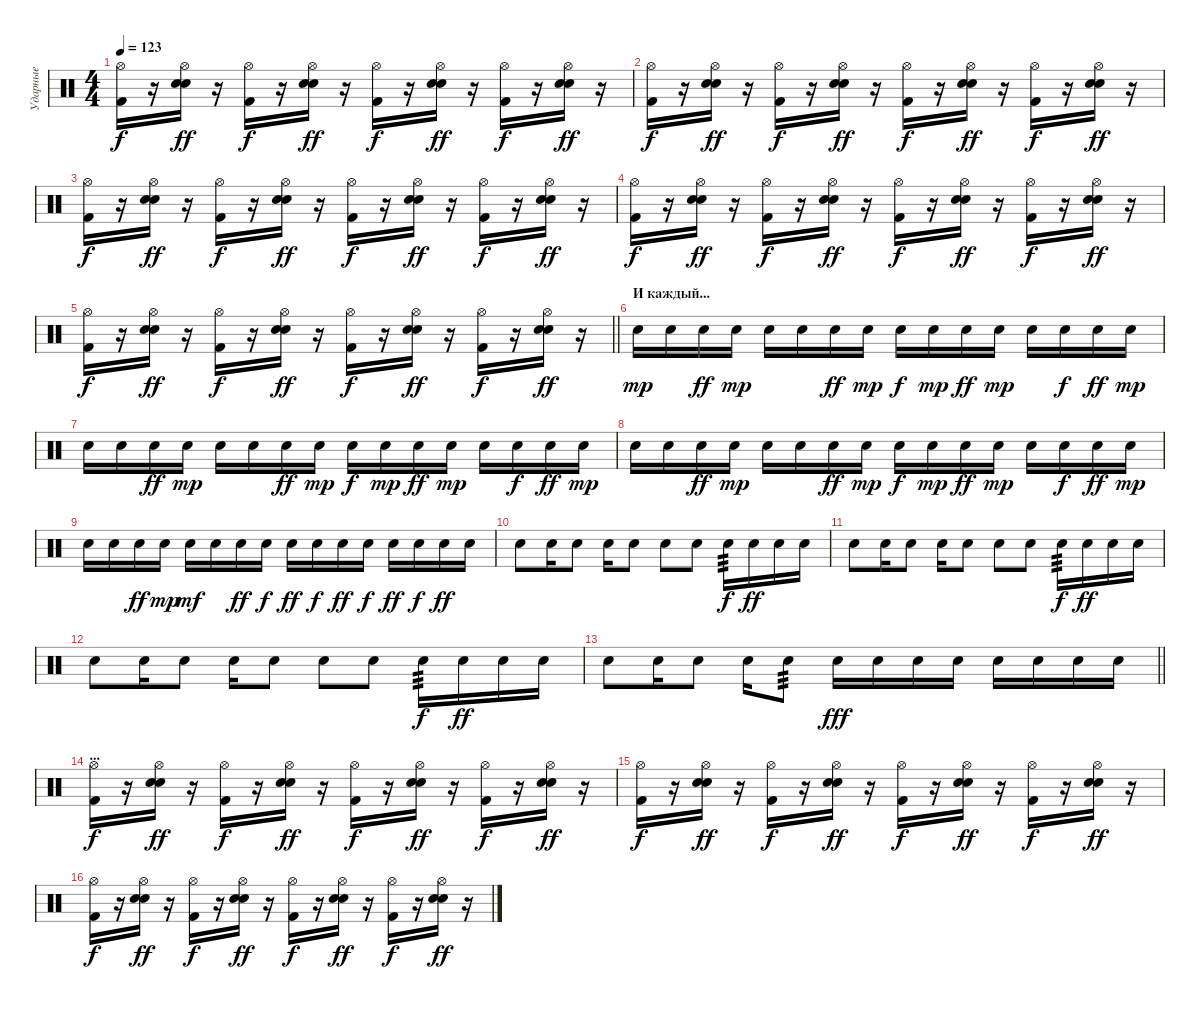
\track ("Ударные" "Ударные") {instrument percussion}
\staff {score}
\articulation defaults
\ts (4 4)
\tempo 123
\clef neutral
\ks c
("Hi-Hat (open)" "Kick (hit) 2").16{dy f} r.16 ("Hi-Hat (open)" "Electric Snare (hit)" "Snare (hit) 2").16{dy ff} r.16 ("Hi-Hat (open)" "Kick (hit) 2").16{dy f} r.16 ("Hi-Hat (open)" "Electric Snare (hit)" "Snare (hit) 2").16{dy ff} r.16 ("Hi-Hat (open)" "Kick (hit) 2").16{dy f} r.16 ("Hi-Hat (open)" "Electric Snare (hit)" "Snare (hit) 2").16{dy ff} r.16 ("Hi-Hat (open)" "Kick (hit) 2").16{dy f} r.16 ("Hi-Hat (open)" "Electric Snare (hit)" "Snare (hit) 2").16{dy ff} r.16 |
("Hi-Hat (open)" "Kick (hit) 2").16{dy f} r.16 ("Hi-Hat (open)" "Electric Snare (hit)" "Snare (hit) 2").16{dy ff} r.16 ("Hi-Hat (open)" "Kick (hit) 2").16{dy f} r.16 ("Hi-Hat (open)" "Electric Snare (hit)" "Snare (hit) 2").16{dy ff} r.16 ("Hi-Hat (open)" "Kick (hit) 2").16{dy f} r.16 ("Hi-Hat (open)" "Electric Snare (hit)" "Snare (hit) 2").16{dy ff} r.16 ("Hi-Hat (open)" "Kick (hit) 2").16{dy f} r.16 ("Hi-Hat (open)" "Electric Snare (hit)" "Snare (hit) 2").16{dy ff} r.16 |
("Hi-Hat (open)" "Kick (hit) 2").16{dy f} r.16 ("Hi-Hat (open)" "Electric Snare (hit)" "Snare (hit) 2").16{dy ff} r.16 ("Hi-Hat (open)" "Kick (hit) 2").16{dy f} r.16 ("Hi-Hat (open)" "Electric Snare (hit)" "Snare (hit) 2").16{dy ff} r.16 ("Hi-Hat (open)" "Kick (hit) 2").16{dy f} r.16 ("Hi-Hat (open)" "Electric Snare (hit)" "Snare (hit) 2").16{dy ff} r.16 ("Hi-Hat (open)" "Kick (hit) 2").16{dy f} r.16 ("Hi-Hat (open)" "Electric Snare (hit)" "Snare (hit) 2").16{dy ff} r.16 |
("Hi-Hat (open)" "Kick (hit) 2").16{dy f} r.16 ("Hi-Hat (open)" "Electric Snare (hit)" "Snare (hit) 2").16{dy ff} r.16 ("Hi-Hat (open)" "Kick (hit) 2").16{dy f} r.16 ("Hi-Hat (open)" "Electric Snare (hit)" "Snare (hit) 2").16{dy ff} r.16 ("Hi-Hat (open)" "Kick (hit) 2").16{dy f} r.16 ("Hi-Hat (open)" "Electric Snare (hit)" "Snare (hit) 2").16{dy ff} r.16 ("Hi-Hat (open)" "Kick (hit) 2").16{dy f} r.16 ("Hi-Hat (open)" "Electric Snare (hit)" "Snare (hit) 2").16{dy ff} r.16 |
\barLineRight lightlight
("Hi-Hat (open)" "Kick (hit) 2").16{dy f} r.16 ("Hi-Hat (open)" "Electric Snare (hit)" "Snare (hit) 2").16{dy ff} r.16 ("Hi-Hat (open)" "Kick (hit) 2").16{dy f} r.16 ("Hi-Hat (open)" "Electric Snare (hit)" "Snare (hit) 2").16{dy ff} r.16 ("Hi-Hat (open)" "Kick (hit) 2").16{dy f} r.16 ("Hi-Hat (open)" "Electric Snare (hit)" "Snare (hit) 2").16{dy ff} r.16 ("Hi-Hat (open)" "Kick (hit) 2").16{dy f} r.16 ("Hi-Hat (open)" "Electric Snare (hit)" "Snare (hit) 2").16{dy ff} r.16 |
\section ("" "И каждый...")
"Snare (hit) 2".16{dy mp} "Snare (hit) 2".16 "Snare (hit) 2".16{dy ff} "Snare (hit) 2".16{dy mp} "Snare (hit) 2".16 "Snare (hit) 2".16 "Snare (hit) 2".16{dy ff} "Snare (hit) 2".16{dy mp} "Snare (hit) 2".16{dy f} "Snare (hit) 2".16{dy mp} "Snare (hit) 2".16{dy ff} "Snare (hit) 2".16{dy mp} "Snare (hit) 2".16 "Snare (hit) 2".16{dy f} "Snare (hit) 2".16{dy ff} "Snare (hit) 2".16{dy mp} |
"Snare (hit) 2".16 "Snare (hit) 2".16 "Snare (hit) 2".16{dy ff} "Snare (hit) 2".16{dy mp} "Snare (hit) 2".16 "Snare (hit) 2".16 "Snare (hit) 2".16{dy ff} "Snare (hit) 2".16{dy mp} "Snare (hit) 2".16{dy f} "Snare (hit) 2".16{dy mp} "Snare (hit) 2".16{dy ff} "Snare (hit) 2".16{dy mp} "Snare (hit) 2".16 "Snare (hit) 2".16{dy f} "Snare (hit) 2".16{dy ff} "Snare (hit) 2".16{dy mp} |
"Snare (hit) 2".16 "Snare (hit) 2".16 "Snare (hit) 2".16{dy ff} "Snare (hit) 2".16{dy mp} "Snare (hit) 2".16 "Snare (hit) 2".16 "Snare (hit) 2".16{dy ff} "Snare (hit) 2".16{dy mp} "Snare (hit) 2".16{dy f} "Snare (hit) 2".16{dy mp} "Snare (hit) 2".16{dy ff} "Snare (hit) 2".16{dy mp} "Snare (hit) 2".16 "Snare (hit) 2".16{dy f} "Snare (hit) 2".16{dy ff} "Snare (hit) 2".16{dy mp} |
"Snare (hit) 2".16 "Snare (hit) 2".16 "Snare (hit) 2".16{dy ff} "Snare (hit) 2".16{dy mp} "Snare (hit) 2".16{dy mf} "Snare (hit) 2".16 "Snare (hit) 2".16{dy ff} "Snare (hit) 2".16{dy f} "Snare (hit) 2".16{dy ff} "Snare (hit) 2".16{dy f} "Snare (hit) 2".16{dy ff} "Snare (hit) 2".16{dy f} "Snare (hit) 2".16{dy ff} "Snare (hit) 2".16{dy f} "Snare (hit) 2".16{dy ff} "Snare (hit) 2".16 |
"Snare (hit) 2".8 "Snare (hit) 2".16 "Snare (hit) 2".8 "Snare (hit) 2".16 "Snare (hit) 2".8 "Snare (hit) 2".8 "Snare (hit) 2".8 "Snare (hit) 2".16{tp 3 dy f} "Snare (hit) 2".16{dy ff} "Snare (hit) 2".16 "Snare (hit) 2".16 |
"Snare (hit) 2".8 "Snare (hit) 2".16 "Snare (hit) 2".8 "Snare (hit) 2".16 "Snare (hit) 2".8 "Snare (hit) 2".8 "Snare (hit) 2".8 "Snare (hit) 2".16{tp 3 dy f} "Snare (hit) 2".16{dy ff} "Snare (hit) 2".16 "Snare (hit) 2".16 |
"Snare (hit) 2".8 "Snare (hit) 2".16 "Snare (hit) 2".8 "Snare (hit) 2".16 "Snare (hit) 2".8 "Snare (hit) 2".8 "Snare (hit) 2".8 "Snare (hit) 2".16{tp 3 dy f} "Snare (hit) 2".16{dy ff} "Snare (hit) 2".16 "Snare (hit) 2".16 |
\barLineRight lightlight "Snare (hit) 2".8 "Snare (hit) 2".16 "Snare (hit) 2".8 "Snare (hit) 2".16 "Snare (hit) 2".8{tp 3} "Snare (hit) 2".16{dy fff} "Snare (hit) 2".16 "Snare (hit) 2".16 "Snare (hit) 2".16 "Snare (hit) 2".16 "Snare (hit) 2".16 "Snare (hit) 2".16 "Snare (hit) 2".16
|
\section ("" "...")
("Hi-Hat (open)" "Kick (hit) 2").16{dy f} r.16 ("Hi-Hat (open)" "Electric Snare (hit)" "Snare (hit) 2").16{dy ff} r.16 ("Hi-Hat (open)" "Kick (hit) 2").16{dy f} r.16 ("Hi-Hat (open)" "Electric Snare (hit)" "Snare (hit) 2").16{dy ff} r.16 ("Hi-Hat (open)" "Kick (hit) 2").16{dy f} r.16 ("Hi-Hat (open)" "Electric Snare (hit)" "Snare (hit) 2").16{dy ff} r.16 ("Hi-Hat (open)" "Kick (hit) 2").16{dy f} r.16 ("Hi-Hat (open)" "Electric Snare (hit)" "Snare (hit) 2").16{dy ff} r.16 |
("Hi-Hat (open)" "Kick (hit) 2").16{dy f} r.16 ("Hi-Hat (open)" "Electric Snare (hit)" "Snare (hit) 2").16{dy ff} r.16 ("Hi-Hat (open)" "Kick (hit) 2").16{dy f} r.16 ("Hi-Hat (open)" "Electric Snare (hit)" "Snare (hit) 2").16{dy ff} r.16 ("Hi-Hat (open)" "Kick (hit) 2").16{dy f} r.16 ("Hi-Hat (open)" "Electric Snare (hit)" "Snare (hit) 2").16{dy ff} r.16 ("Hi-Hat (open)" "Kick (hit) 2").16{dy f} r.16 ("Hi-Hat (open)" "Electric Snare (hit)" "Snare (hit) 2").16{dy ff} r.16 |
("Hi-Hat (open)" "Kick (hit) 2").16{dy f} r.16 ("Hi-Hat (open)" "Electric Snare (hit)" "Snare (hit) 2").16{dy ff} r.16 ("Hi-Hat (open)" "Kick (hit) 2").16{dy f} r.16 ("Hi-Hat (open)" "Electric Snare (hit)" "Snare (hit) 2").16{dy ff} r.16 ("Hi-Hat (open)" "Kick (hit) 2").16{dy f} r.16 ("Hi-Hat (open)" "Electric Snare (hit)" "Snare (hit) 2").16{dy ff} r.16 ("Hi-Hat (open)" "Kick (hit) 2").16{dy f} r.16 ("Hi-Hat (open)" "Electric Snare (hit)" "Snare (hit) 2").16{dy ff} r.16
